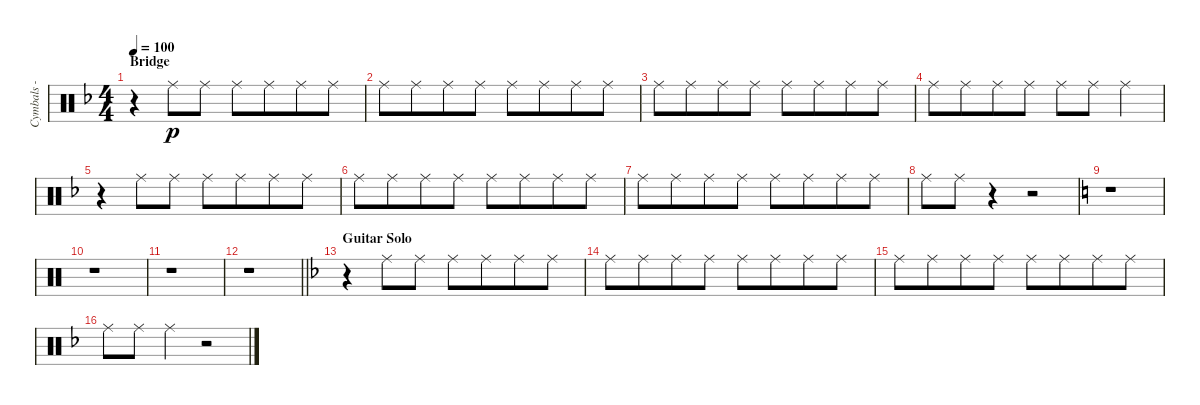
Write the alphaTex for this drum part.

\track ("Cymbals - ride" "Cymbals - ") {instrument percussion}
\staff {score}
\articulation defaults
\ts (4 4)
\section ("" "Bridge")
\tempo 100
\clef neutral
\ks dminor
r.4{dy pp beam merge} "Ride (middle)".8{dy p} "Ride (middle)".8 "Ride (middle)".8 "Ride (middle)".8{beam merge} "Ride (middle)".8 "Ride (middle)".8 |
"Ride (middle)".8 "Ride (middle)".8{beam merge} "Ride (middle)".8 "Ride (middle)".8 "Ride (middle)".8 "Ride (middle)".8{beam merge} "Ride (middle)".8 "Ride (middle)".8 |
"Ride (middle)".8 "Ride (middle)".8{beam merge} "Ride (middle)".8 "Ride (middle)".8 "Ride (middle)".8 "Ride (middle)".8{beam merge} "Ride (middle)".8 "Ride (middle)".8 |
"Ride (middle)".8 "Ride (middle)".8{beam merge} "Ride (middle)".8 "Ride (middle)".8 "Ride (middle)".8 "Ride (middle)".8 "Ride (middle)".4 |
r.4{beam merge} "Ride (middle)".8 "Ride (middle)".8 "Ride (middle)".8 "Ride (middle)".8{beam merge} "Ride (middle)".8 "Ride (middle)".8 |
"Ride (middle)".8 "Ride (middle)".8{beam merge} "Ride (middle)".8 "Ride (middle)".8 "Ride (middle)".8 "Ride (middle)".8{beam merge} "Ride (middle)".8 "Ride (middle)".8 |
"Ride (middle)".8 "Ride (middle)".8{beam merge} "Ride (middle)".8 "Ride (middle)".8 "Ride (middle)".8 "Ride (middle)".8{beam merge} "Ride (middle)".8 "Ride (middle)".8 |
"Ride (middle)".8 "Ride (middle)".8 r.4 r.2 |
\ks aminor
r.1 |
r.1 |
r.1 |
\barLineRight lightlight
r.1 |
\section ("" "Guitar Solo")
\ks dminor
r.4 "Ride (middle)".8 "Ride (middle)".8 "Ride (middle)".8 "Ride (middle)".8{beam merge} "Ride (middle)".8 "Ride (middle)".8 |
"Ride (middle)".8 "Ride (middle)".8{beam merge} "Ride (middle)".8 "Ride (middle)".8 "Ride (middle)".8 "Ride (middle)".8{beam merge} "Ride (middle)".8 "Ride (middle)".8 |
"Ride (middle)".8 "Ride (middle)".8{beam merge} "Ride (middle)".8 "Ride (middle)".8 "Ride (middle)".8 "Ride (middle)".8{beam merge} "Ride (middle)".8 "Ride (middle)".8 |
"Ride (middle)".8 "Ride (middle)".8 "Ride (middle)".4 r.2
